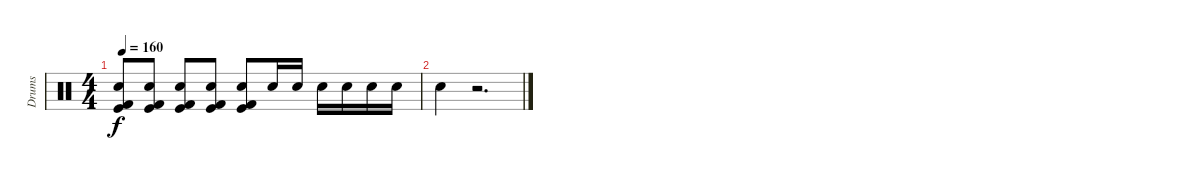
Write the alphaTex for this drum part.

\track ("Drums" "Drums") {instrument percussion}
\staff {score}
\articulation defaults
\ts (4 4)
\tempo 160
\clef neutral
\ks c
("Electric Snare (hit)" "Kick (hit) 2" "Kick (hit)").8{dy f} ("Electric Snare (hit)" "Kick (hit) 2" "Kick (hit)").8 ("Electric Snare (hit)" "Kick (hit) 2" "Kick (hit)").8 ("Electric Snare (hit)" "Kick (hit) 2" "Kick (hit)").8 ("Electric Snare (hit)" "Kick (hit) 2" "Kick (hit)").8 "Electric Snare (hit)".16 "Electric Snare (hit)".16 "Electric Snare (hit)".16 "Electric Snare (hit)".16 "Electric Snare (hit)".16 "Electric Snare (hit)".16 |
"Electric Snare (hit)".4 r.2{d}
